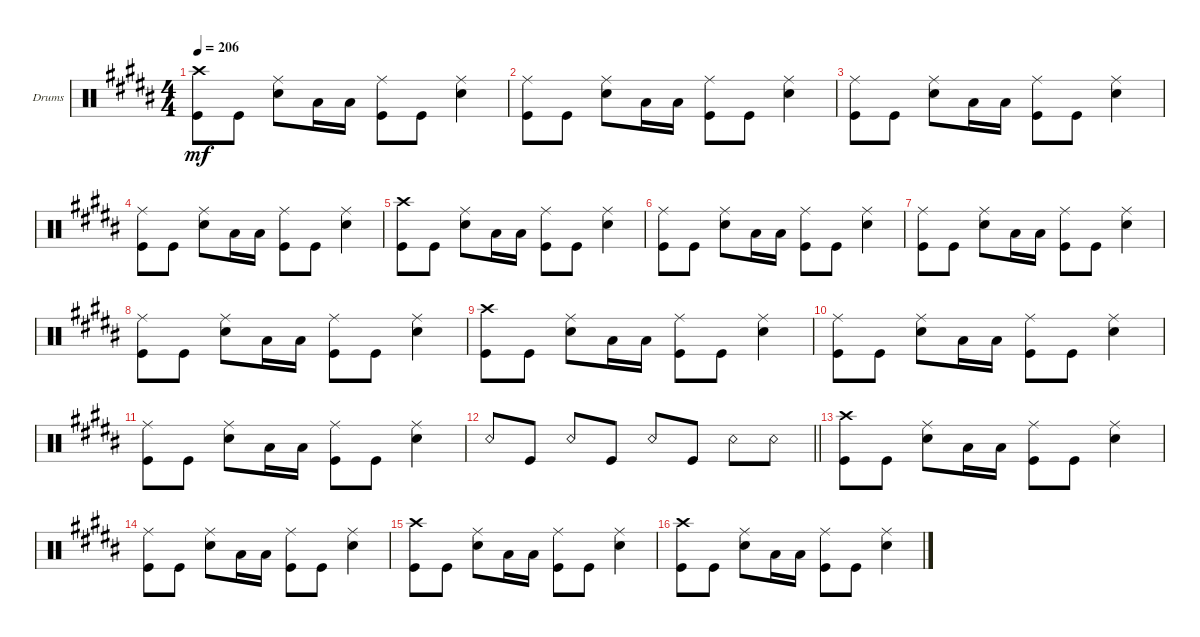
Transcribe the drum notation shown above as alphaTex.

\defaultSystemsLayout 4
\bracketExtendMode groupsimilarinstruments
\firstSystemTrackNameOrientation horizontal
\otherSystemsTrackNameOrientation horizontal
\track ("Drums" "Drums") {instrument percussion}
\staff {score}
\articulation defaults
\ts (4 4)
\tempo 206
\clef neutral
\ks b
("Kick (hit)" "Crash high (hit)").8{dy mf} "Kick (hit)".8 ("Snare (hit) 2" "Ride (middle)").8 "Low Tom (hit)".16 "Low Tom (hit)".16 ("Kick (hit)" "Ride (middle)").8 "Kick (hit)".8 ("Snare (hit) 2" "Ride (middle)").4 |
("Kick (hit)" "Ride (middle)").8 "Kick (hit)".8 ("Snare (hit) 2" "Ride (middle)").8 "Low Tom (hit)".16 "Low Tom (hit)".16 ("Kick (hit)" "Ride (middle)").8 "Kick (hit)".8 ("Snare (hit) 2" "Ride (middle)").4 |
("Kick (hit)" "Ride (middle)").8 "Kick (hit)".8 ("Snare (hit) 2" "Ride (middle)").8 "Low Tom (hit)".16 "Low Tom (hit)".16 ("Kick (hit)" "Ride (middle)").8 "Kick (hit)".8 ("Snare (hit) 2" "Ride (middle)").4 |
("Kick (hit)" "Ride (middle)").8 "Kick (hit)".8 ("Snare (hit) 2" "Ride (middle)").8 "Low Tom (hit)".16 "Low Tom (hit)".16 ("Kick (hit)" "Ride (middle)").8 "Kick (hit)".8 ("Snare (hit) 2" "Ride (middle)").4 |
("Kick (hit)" "Crash high (hit)").8 "Kick (hit)".8 ("Snare (hit) 2" "Ride (middle)").8 "Low Tom (hit)".16 "Low Tom (hit)".16 ("Kick (hit)" "Ride (middle)").8 "Kick (hit)".8 ("Snare (hit) 2" "Ride (middle)").4 |
("Kick (hit)" "Ride (middle)").8 "Kick (hit)".8 ("Snare (hit) 2" "Ride (middle)").8 "Low Tom (hit)".16 "Low Tom (hit)".16 ("Kick (hit)" "Ride (middle)").8 "Kick (hit)".8 ("Snare (hit) 2" "Ride (middle)").4 |
("Kick (hit)" "Ride (middle)").8 "Kick (hit)".8 ("Snare (hit) 2" "Ride (middle)").8 "Low Tom (hit)".16 "Low Tom (hit)".16 ("Kick (hit)" "Ride (middle)").8 "Kick (hit)".8 ("Snare (hit) 2" "Ride (middle)").4 |
("Kick (hit)" "Ride (middle)").8 "Kick (hit)".8 ("Snare (hit) 2" "Ride (middle)").8 "Low Tom (hit)".16 "Low Tom (hit)".16 ("Kick (hit)" "Ride (middle)").8 "Kick (hit)".8 ("Snare (hit) 2" "Ride (middle)").4 |
("Kick (hit)" "Crash high (hit)").8 "Kick (hit)".8 ("Snare (hit) 2" "Ride (middle)").8 "Low Tom (hit)".16 "Low Tom (hit)".16 ("Kick (hit)" "Ride (middle)").8 "Kick (hit)".8 ("Snare (hit) 2" "Ride (middle)").4 |
("Kick (hit)" "Ride (middle)").8 "Kick (hit)".8 ("Snare (hit) 2" "Ride (middle)").8 "Low Tom (hit)".16 "Low Tom (hit)".16 ("Kick (hit)" "Ride (middle)").8 "Kick (hit)".8 ("Snare (hit) 2" "Ride (middle)").4 |
("Kick (hit)" "Ride (middle)").8 "Kick (hit)".8 ("Snare (hit) 2" "Ride (middle)").8 "Low Tom (hit)".16 "Low Tom (hit)".16 ("Kick (hit)" "Ride (middle)").8 "Kick (hit)".8 ("Snare (hit) 2" "Ride (middle)").4 |
\barLineRight lightlight "Snare (rim shot)".8 "Kick (hit)".8 "Snare (rim shot)".8 "Kick (hit)".8 "Snare (rim shot)".8 "Kick (hit)".8 "Snare (rim shot)".8 "Snare (rim shot)".8
|
("Kick (hit)" "Crash high (hit)").8 "Kick (hit)".8 ("Snare (hit) 2" "Ride (middle)").8 "Low Tom (hit)".16 "Low Tom (hit)".16 ("Kick (hit)" "Ride (middle)").8 "Kick (hit)".8 ("Snare (hit) 2" "Ride (middle)").4 |
("Kick (hit)" "Ride (middle)").8 "Kick (hit)".8 ("Snare (hit) 2" "Ride (middle)").8 "Low Tom (hit)".16 "Low Tom (hit)".16 ("Kick (hit)" "Ride (middle)").8 "Kick (hit)".8 ("Snare (hit) 2" "Ride (middle)").4 |
("Kick (hit)" "Crash high (hit)").8 "Kick (hit)".8 ("Snare (hit) 2" "Ride (middle)").8 "Low Tom (hit)".16 "Low Tom (hit)".16 ("Kick (hit)" "Ride (middle)").8 "Kick (hit)".8 ("Snare (hit) 2" "Ride (middle)").4 |
("Kick (hit)" "Crash high (hit)").8 "Kick (hit)".8 ("Snare (hit) 2" "Ride (middle)").8 "Low Tom (hit)".16 "Low Tom (hit)".16 ("Kick (hit)" "Ride (middle)").8 "Kick (hit)".8 ("Snare (hit) 2" "Ride (middle)").4
